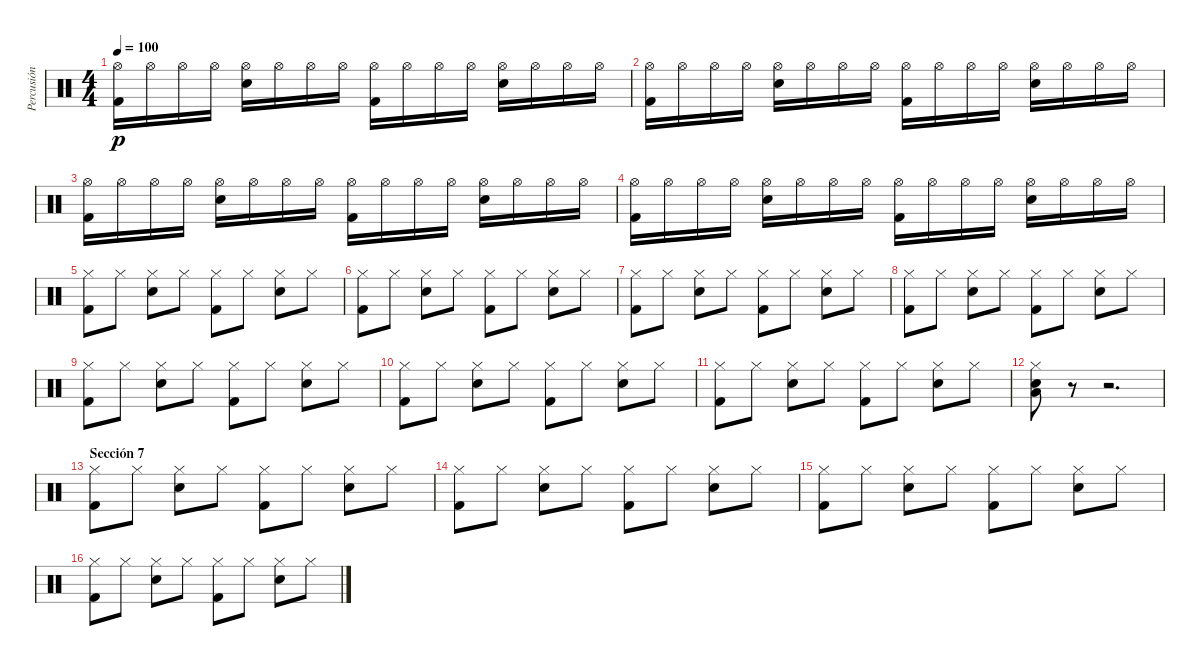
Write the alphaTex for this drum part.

\track ("Percusión" "Percusión") {instrument percussion}
\staff {score}
\articulation defaults
\ts (4 4)
\tempo 100
\clef neutral
\ks c
("Hi-Hat (open)" "Kick (hit) 2").16{dy p} "Hi-Hat (open)".16 "Hi-Hat (open)".16 "Hi-Hat (open)".16 ("Hi-Hat (open)" "Snare (hit) 2").16 "Hi-Hat (open)".16 "Hi-Hat (open)".16 "Hi-Hat (open)".16 ("Hi-Hat (open)" "Kick (hit) 2").16 "Hi-Hat (open)".16 "Hi-Hat (open)".16 "Hi-Hat (open)".16 ("Hi-Hat (open)" "Snare (hit) 2").16 "Hi-Hat (open)".16 "Hi-Hat (open)".16 "Hi-Hat (open)".16 |
("Hi-Hat (open)" "Kick (hit) 2").16 "Hi-Hat (open)".16 "Hi-Hat (open)".16 "Hi-Hat (open)".16 ("Hi-Hat (open)" "Snare (hit) 2").16 "Hi-Hat (open)".16 "Hi-Hat (open)".16 "Hi-Hat (open)".16 ("Hi-Hat (open)" "Kick (hit) 2").16 "Hi-Hat (open)".16 "Hi-Hat (open)".16 "Hi-Hat (open)".16 ("Hi-Hat (open)" "Snare (hit) 2").16 "Hi-Hat (open)".16 "Hi-Hat (open)".16 "Hi-Hat (open)".16 |
("Hi-Hat (open)" "Kick (hit) 2").16 "Hi-Hat (open)".16 "Hi-Hat (open)".16 "Hi-Hat (open)".16 ("Hi-Hat (open)" "Snare (hit) 2").16 "Hi-Hat (open)".16 "Hi-Hat (open)".16 "Hi-Hat (open)".16 ("Hi-Hat (open)" "Kick (hit) 2").16 "Hi-Hat (open)".16 "Hi-Hat (open)".16 "Hi-Hat (open)".16 ("Hi-Hat (open)" "Snare (hit) 2").16 "Hi-Hat (open)".16 "Hi-Hat (open)".16 "Hi-Hat (open)".16 |
("Hi-Hat (open)" "Kick (hit) 2").16 "Hi-Hat (open)".16 "Hi-Hat (open)".16 "Hi-Hat (open)".16 ("Hi-Hat (open)" "Snare (hit) 2").16 "Hi-Hat (open)".16 "Hi-Hat (open)".16 "Hi-Hat (open)".16 ("Hi-Hat (open)" "Kick (hit) 2").16 "Hi-Hat (open)".16 "Hi-Hat (open)".16 "Hi-Hat (open)".16 ("Hi-Hat (open)" "Snare (hit) 2").16 "Hi-Hat (open)".16 "Hi-Hat (open)".16 "Hi-Hat (open)".16 |
("Hi-Hat (closed)" "Kick (hit) 2").8 "Hi-Hat (closed)".8 ("Hi-Hat (closed)" "Snare (hit) 2").8 "Hi-Hat (closed)".8 ("Hi-Hat (closed)" "Kick (hit) 2").8 "Hi-Hat (closed)".8 ("Hi-Hat (closed)" "Snare (hit) 2").8 "Hi-Hat (closed)".8 |
("Hi-Hat (closed)" "Kick (hit) 2").8 "Hi-Hat (closed)".8 ("Hi-Hat (closed)" "Snare (hit) 2").8 "Hi-Hat (closed)".8 ("Hi-Hat (closed)" "Kick (hit) 2").8 "Hi-Hat (closed)".8 ("Hi-Hat (closed)" "Snare (hit) 2").8 "Hi-Hat (closed)".8 |
("Hi-Hat (closed)" "Kick (hit) 2").8 "Hi-Hat (closed)".8 ("Hi-Hat (closed)" "Snare (hit) 2").8 "Hi-Hat (closed)".8 ("Hi-Hat (closed)" "Kick (hit) 2").8 "Hi-Hat (closed)".8 ("Hi-Hat (closed)" "Snare (hit) 2").8 "Hi-Hat (closed)".8 |
("Hi-Hat (closed)" "Kick (hit) 2").8 "Hi-Hat (closed)".8 ("Hi-Hat (closed)" "Snare (hit) 2").8 "Hi-Hat (closed)".8 ("Hi-Hat (closed)" "Kick (hit) 2").8 "Hi-Hat (closed)".8 ("Hi-Hat (closed)" "Snare (hit) 2").8 "Hi-Hat (closed)".8 |
("Hi-Hat (closed)" "Kick (hit) 2").8 "Hi-Hat (closed)".8 ("Hi-Hat (closed)" "Snare (hit) 2").8 "Hi-Hat (closed)".8 ("Hi-Hat (closed)" "Kick (hit) 2").8 "Hi-Hat (closed)".8 ("Hi-Hat (closed)" "Snare (hit) 2").8 "Hi-Hat (closed)".8 |
("Hi-Hat (closed)" "Kick (hit) 2").8 "Hi-Hat (closed)".8 ("Hi-Hat (closed)" "Snare (hit) 2").8 "Hi-Hat (closed)".8 ("Hi-Hat (closed)" "Kick (hit) 2").8 "Hi-Hat (closed)".8 ("Hi-Hat (closed)" "Snare (hit) 2").8 "Hi-Hat (closed)".8 |
("Hi-Hat (closed)" "Kick (hit) 2").8 "Hi-Hat (closed)".8 ("Hi-Hat (closed)" "Snare (hit) 2").8 "Hi-Hat (closed)".8 ("Hi-Hat (closed)" "Kick (hit) 2").8 "Hi-Hat (closed)".8 ("Hi-Hat (closed)" "Snare (hit) 2").8 "Hi-Hat (closed)".8 |
("Hi-Hat (closed)" "Snare (hit) 2" "Low Tom (hit)").8 r.8 r.2{d} |
\section ("" "Sección 7")
("Hi-Hat (closed)" "Kick (hit) 2").8 "Hi-Hat (closed)".8 ("Hi-Hat (closed)" "Snare (hit) 2").8 "Hi-Hat (closed)".8 ("Hi-Hat (closed)" "Kick (hit) 2").8 "Hi-Hat (closed)".8 ("Hi-Hat (closed)" "Snare (hit) 2").8 "Hi-Hat (closed)".8 |
("Hi-Hat (closed)" "Kick (hit) 2").8 "Hi-Hat (closed)".8 ("Hi-Hat (closed)" "Snare (hit) 2").8 "Hi-Hat (closed)".8 ("Hi-Hat (closed)" "Kick (hit) 2").8 "Hi-Hat (closed)".8 ("Hi-Hat (closed)" "Snare (hit) 2").8 "Hi-Hat (closed)".8 |
("Hi-Hat (closed)" "Kick (hit) 2").8 "Hi-Hat (closed)".8 ("Hi-Hat (closed)" "Snare (hit) 2").8 "Hi-Hat (closed)".8 ("Hi-Hat (closed)" "Kick (hit) 2").8 "Hi-Hat (closed)".8 ("Hi-Hat (closed)" "Snare (hit) 2").8 "Hi-Hat (closed)".8 |
("Hi-Hat (closed)" "Kick (hit) 2").8 "Hi-Hat (closed)".8 ("Hi-Hat (closed)" "Snare (hit) 2").8 "Hi-Hat (closed)".8 ("Hi-Hat (closed)" "Kick (hit) 2").8 "Hi-Hat (closed)".8 ("Hi-Hat (closed)" "Snare (hit) 2").8 "Hi-Hat (closed)".8
